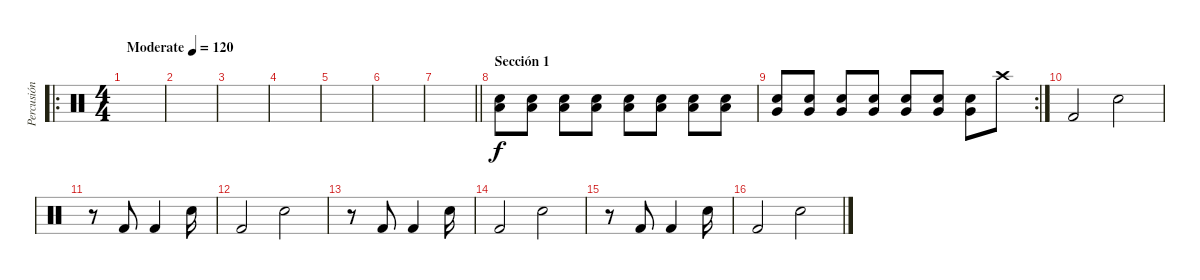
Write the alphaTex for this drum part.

\track ("Percusión" "Percusión") {instrument percussion}
\staff {score}
\articulation defaults
\ro
\ts (4 4)
\tempo (120 "Moderate")
\clef neutral
\ks c
|
|
|
|
|
|
\barLineRight lightlight
|
\section ("" "Sección 1")
("Snare (hit) 2" "Low Floor Tom (hit)").8 ("Snare (hit) 2" "Low Floor Tom (hit)").8 ("Snare (hit) 2" "Low Floor Tom (hit)").8 ("Snare (hit) 2" "Low Floor Tom (hit)").8 ("Snare (hit) 2" "Low Floor Tom (hit)").8 ("Snare (hit) 2" "Low Floor Tom (hit)").8 ("Snare (hit) 2" "Low Floor Tom (hit)").8 ("Snare (hit) 2" "Low Floor Tom (hit)").8 |
\rc 2
("Snare (hit) 2" "Very Low Tom (hit)").8 ("Snare (hit) 2" "Very Low Tom (hit)").8 ("Snare (hit) 2" "Very Low Tom (hit)").8 ("Snare (hit) 2" "Very Low Tom (hit)").8 ("Snare (hit) 2" "Very Low Tom (hit)").8 ("Snare (hit) 2" "Very Low Tom (hit)").8 ("Snare (hit) 2" "Very Low Tom (hit)").8 "Crash high (hit)".8 |
"Kick (hit) 2".2 "Snare (hit) 2".2 |
r.8 "Kick (hit) 2".8 "Kick (hit) 2".4 "Snare (hit) 2".16 |
"Kick (hit) 2".2 "Snare (hit) 2".2 |
r.8 "Kick (hit) 2".8 "Kick (hit) 2".4 "Snare (hit) 2".16 |
"Kick (hit) 2".2 "Snare (hit) 2".2 |
r.8 "Kick (hit) 2".8 "Kick (hit) 2".4 "Snare (hit) 2".16 |
"Kick (hit) 2".2 "Snare (hit) 2".2
